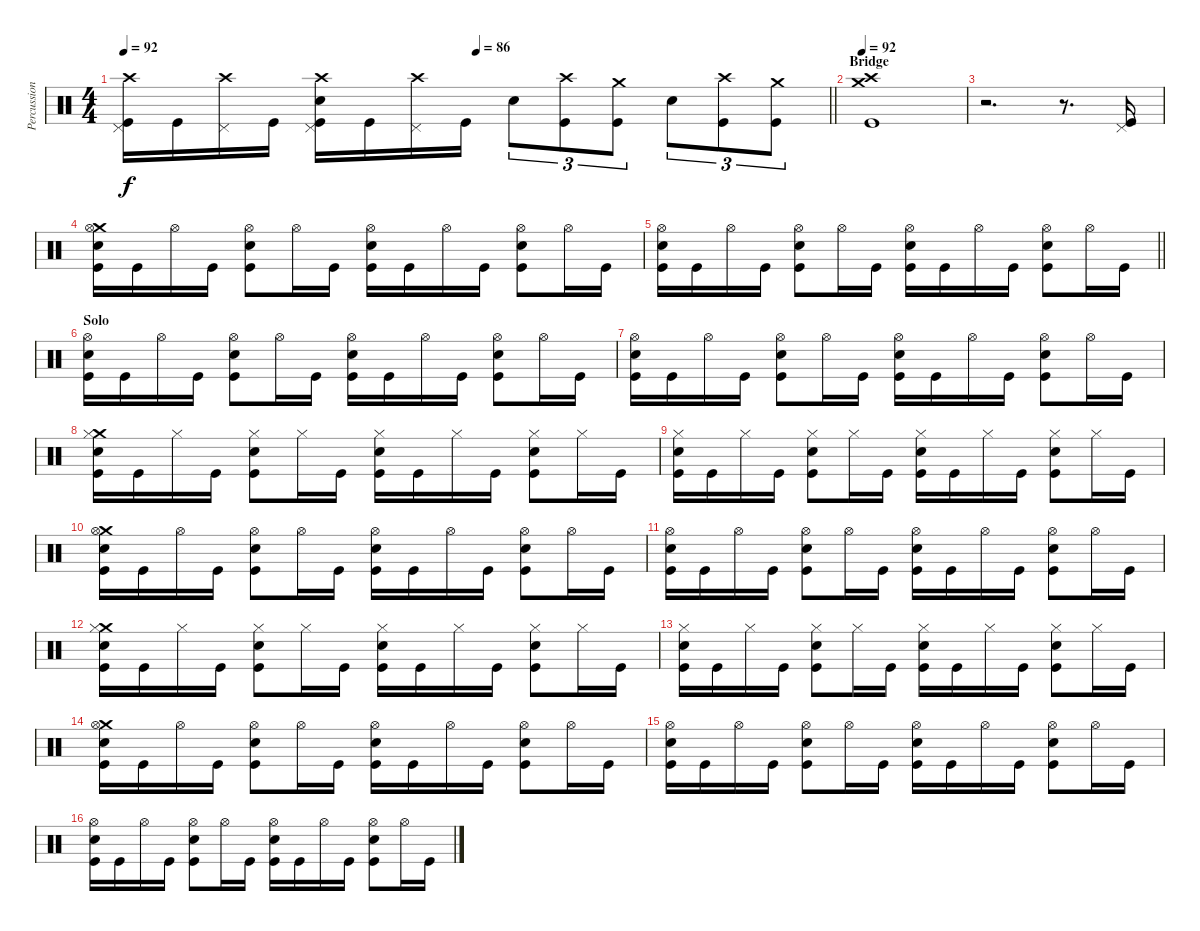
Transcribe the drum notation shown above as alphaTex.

\track ("Percussion" "Percussion") {instrument percussion}
\staff {score}
\articulation defaults
\ts (4 4)
\tempo 92
\tempo (86 0.5)
\clef neutral
\barLineRight lightlight
\ks c
("Crash high (hit)" "Pedal Hi-Hat (hit)" "Kick (hit)").16{dy f} "Kick (hit)".16 ("Crash high (hit)" "Pedal Hi-Hat (hit)").16 "Kick (hit)".16 ("Crash high (hit)" "Pedal Hi-Hat (hit)" "Electric Snare (hit)" "Kick (hit)").16 "Kick (hit)".16 ("Crash high (hit)" "Pedal Hi-Hat (hit)").16 "Kick (hit)".16 "Electric Snare (hit)".8{tu (3 2)} ("Crash high (hit)" "Kick (hit)").8{tu (3 2)} ("Crash medium (hit)" "Kick (hit)").8{tu (3 2)} "Electric Snare (hit)".8{tu (3 2)} ("Crash high (hit)" "Kick (hit)").8{tu (3 2)} ("Crash medium (hit)" "Kick (hit)").8{tu (3 2)} |
\section ("" "Bridge")
\tempo 92
("Crash high (hit)" "Crash medium (hit)" "Kick (hit)").1 |
r.2{d} r.8{d} ("Pedal Hi-Hat (hit)" "Kick (hit)").16 |
("Crash medium (hit)" "Hi-Hat (open)" "Electric Snare (hit)" "Kick (hit)").16 "Kick (hit)".16 "Hi-Hat (open)".16 "Kick (hit)".16 ("Hi-Hat (open)" "Electric Snare (hit)" "Kick (hit)").8 "Hi-Hat (open)".16 "Kick (hit)".16 ("Hi-Hat (open)" "Electric Snare (hit)" "Kick (hit)").16 "Kick (hit)".16 "Hi-Hat (open)".16 "Kick (hit)".16 ("Hi-Hat (open)" "Electric Snare (hit)" "Kick (hit)").8 "Hi-Hat (open)".16 "Kick (hit)".16 |
\barLineRight lightlight
("Hi-Hat (open)" "Electric Snare (hit)" "Kick (hit)").16 "Kick (hit)".16 "Hi-Hat (open)".16 "Kick (hit)".16 ("Hi-Hat (open)" "Electric Snare (hit)" "Kick (hit)").8 "Hi-Hat (open)".16 "Kick (hit)".16 ("Hi-Hat (open)" "Electric Snare (hit)" "Kick (hit)").16 "Kick (hit)".16 "Hi-Hat (open)".16 "Kick (hit)".16 ("Hi-Hat (open)" "Electric Snare (hit)" "Kick (hit)").8 "Hi-Hat (open)".16 "Kick (hit)".16 |
\section ("" "Solo")
("Hi-Hat (open)" "Electric Snare (hit)" "Kick (hit)").16 "Kick (hit)".16 "Hi-Hat (open)".16 "Kick (hit)".16 ("Hi-Hat (open)" "Electric Snare (hit)" "Kick (hit)").8 "Hi-Hat (open)".16 "Kick (hit)".16 ("Hi-Hat (open)" "Electric Snare (hit)" "Kick (hit)").16 "Kick (hit)".16 "Hi-Hat (open)".16 "Kick (hit)".16 ("Hi-Hat (open)" "Electric Snare (hit)" "Kick (hit)").8 "Hi-Hat (open)".16 "Kick (hit)".16 |
("Hi-Hat (open)" "Electric Snare (hit)" "Kick (hit)").16 "Kick (hit)".16 "Hi-Hat (open)".16 "Kick (hit)".16 ("Hi-Hat (open)" "Electric Snare (hit)" "Kick (hit)").8 "Hi-Hat (open)".16 "Kick (hit)".16 ("Hi-Hat (open)" "Electric Snare (hit)" "Kick (hit)").16 "Kick (hit)".16 "Hi-Hat (open)".16 "Kick (hit)".16 ("Hi-Hat (open)" "Electric Snare (hit)" "Kick (hit)").8 "Hi-Hat (open)".16 "Kick (hit)".16 |
("Crash medium (hit)" "Hi-Hat (closed)" "Electric Snare (hit)" "Kick (hit)").16 "Kick (hit)".16 "Hi-Hat (closed)".16 "Kick (hit)".16 ("Hi-Hat (closed)" "Electric Snare (hit)" "Kick (hit)").8 "Hi-Hat (closed)".16 "Kick (hit)".16 ("Hi-Hat (closed)" "Electric Snare (hit)" "Kick (hit)").16 "Kick (hit)".16 "Hi-Hat (closed)".16 "Kick (hit)".16 ("Hi-Hat (closed)" "Electric Snare (hit)" "Kick (hit)").8 "Hi-Hat (closed)".16 "Kick (hit)".16 |
("Hi-Hat (closed)" "Electric Snare (hit)" "Kick (hit)").16 "Kick (hit)".16 "Hi-Hat (closed)".16 "Kick (hit)".16 ("Hi-Hat (closed)" "Electric Snare (hit)" "Kick (hit)").8 "Hi-Hat (closed)".16 "Kick (hit)".16 ("Hi-Hat (closed)" "Electric Snare (hit)" "Kick (hit)").16 "Kick (hit)".16 "Hi-Hat (closed)".16 "Kick (hit)".16 ("Hi-Hat (closed)" "Electric Snare (hit)" "Kick (hit)").8 "Hi-Hat (closed)".16 "Kick (hit)".16 |
("Crash medium (hit)" "Hi-Hat (open)" "Electric Snare (hit)" "Kick (hit)").16 "Kick (hit)".16 "Hi-Hat (open)".16 "Kick (hit)".16 ("Hi-Hat (open)" "Electric Snare (hit)" "Kick (hit)").8 "Hi-Hat (open)".16 "Kick (hit)".16 ("Hi-Hat (open)" "Electric Snare (hit)" "Kick (hit)").16 "Kick (hit)".16 "Hi-Hat (open)".16 "Kick (hit)".16 ("Hi-Hat (open)" "Electric Snare (hit)" "Kick (hit)").8 "Hi-Hat (open)".16 "Kick (hit)".16 |
("Hi-Hat (open)" "Electric Snare (hit)" "Kick (hit)").16 "Kick (hit)".16 "Hi-Hat (open)".16 "Kick (hit)".16 ("Hi-Hat (open)" "Electric Snare (hit)" "Kick (hit)").8 "Hi-Hat (open)".16 "Kick (hit)".16 ("Hi-Hat (open)" "Electric Snare (hit)" "Kick (hit)").16 "Kick (hit)".16 "Hi-Hat (open)".16 "Kick (hit)".16 ("Hi-Hat (open)" "Electric Snare (hit)" "Kick (hit)").8 "Hi-Hat (open)".16 "Kick (hit)".16 |
("Crash medium (hit)" "Hi-Hat (closed)" "Electric Snare (hit)" "Kick (hit)").16 "Kick (hit)".16 "Hi-Hat (closed)".16 "Kick (hit)".16 ("Hi-Hat (closed)" "Electric Snare (hit)" "Kick (hit)").8 "Hi-Hat (closed)".16 "Kick (hit)".16 ("Hi-Hat (closed)" "Electric Snare (hit)" "Kick (hit)").16 "Kick (hit)".16 "Hi-Hat (closed)".16 "Kick (hit)".16 ("Hi-Hat (closed)" "Electric Snare (hit)" "Kick (hit)").8 "Hi-Hat (closed)".16 "Kick (hit)".16 |
("Hi-Hat (closed)" "Electric Snare (hit)" "Kick (hit)").16 "Kick (hit)".16 "Hi-Hat (closed)".16 "Kick (hit)".16 ("Hi-Hat (closed)" "Electric Snare (hit)" "Kick (hit)").8 "Hi-Hat (closed)".16 "Kick (hit)".16 ("Hi-Hat (closed)" "Electric Snare (hit)" "Kick (hit)").16 "Kick (hit)".16 "Hi-Hat (closed)".16 "Kick (hit)".16 ("Hi-Hat (closed)" "Electric Snare (hit)" "Kick (hit)").8 "Hi-Hat (closed)".16 "Kick (hit)".16 |
("Crash medium (hit)" "Hi-Hat (open)" "Electric Snare (hit)" "Kick (hit)").16 "Kick (hit)".16 "Hi-Hat (open)".16 "Kick (hit)".16 ("Hi-Hat (open)" "Electric Snare (hit)" "Kick (hit)").8 "Hi-Hat (open)".16 "Kick (hit)".16 ("Hi-Hat (open)" "Electric Snare (hit)" "Kick (hit)").16 "Kick (hit)".16 "Hi-Hat (open)".16 "Kick (hit)".16 ("Hi-Hat (open)" "Electric Snare (hit)" "Kick (hit)").8 "Hi-Hat (open)".16 "Kick (hit)".16 |
("Hi-Hat (open)" "Electric Snare (hit)" "Kick (hit)").16 "Kick (hit)".16 "Hi-Hat (open)".16 "Kick (hit)".16 ("Hi-Hat (open)" "Electric Snare (hit)" "Kick (hit)").8 "Hi-Hat (open)".16 "Kick (hit)".16 ("Hi-Hat (open)" "Electric Snare (hit)" "Kick (hit)").16 "Kick (hit)".16 "Hi-Hat (open)".16 "Kick (hit)".16 ("Hi-Hat (open)" "Electric Snare (hit)" "Kick (hit)").8 "Hi-Hat (open)".16 "Kick (hit)".16 |
("Hi-Hat (open)" "Electric Snare (hit)" "Kick (hit)").16 "Kick (hit)".16 "Hi-Hat (open)".16 "Kick (hit)".16 ("Hi-Hat (open)" "Electric Snare (hit)" "Kick (hit)").8 "Hi-Hat (open)".16 "Kick (hit)".16 ("Hi-Hat (open)" "Electric Snare (hit)" "Kick (hit)").16 "Kick (hit)".16 "Hi-Hat (open)".16 "Kick (hit)".16 ("Hi-Hat (open)" "Electric Snare (hit)" "Kick (hit)").8 "Hi-Hat (open)".16 "Kick (hit)".16
